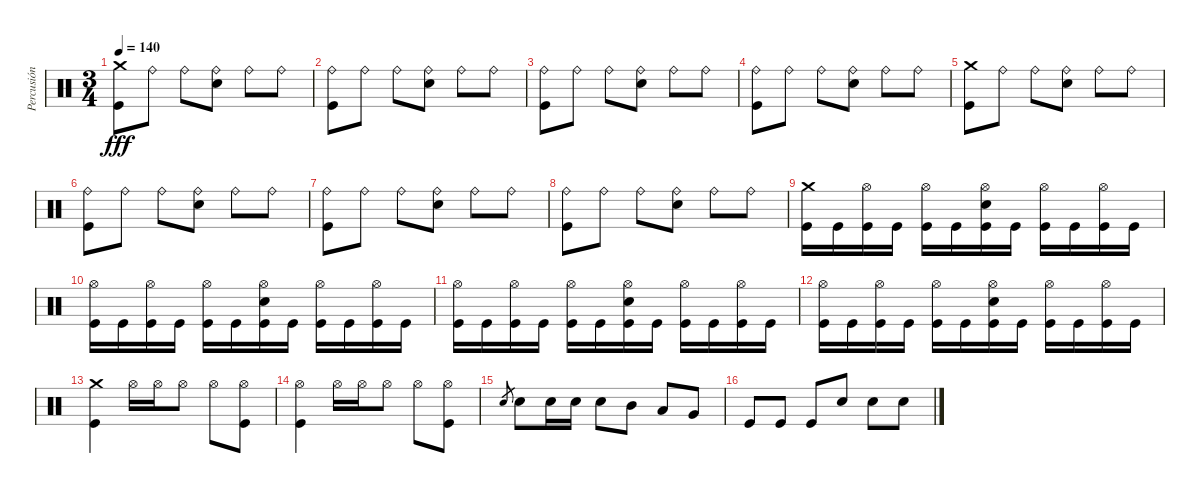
\track ("Percusión" "Percusión") {instrument percussion}
\staff {score}
\articulation defaults
\ts (3 4)
\tempo 140
\clef neutral
\ks c
("Crash medium (hit)" "Kick (hit)").8{dy fff} "Ride (bell)".8 "Ride (bell)".8 ("Ride (bell)" "Snare (hit) 2").8 "Ride (bell)".8 "Ride (bell)".8 |
("Ride (bell)" "Kick (hit)").8 "Ride (bell)".8 "Ride (bell)".8 ("Ride (bell)" "Snare (hit) 2").8 "Ride (bell)".8 "Ride (bell)".8 |
("Ride (bell)" "Kick (hit)").8 "Ride (bell)".8 "Ride (bell)".8 ("Ride (bell)" "Snare (hit) 2").8 "Ride (bell)".8 "Ride (bell)".8 |
("Ride (bell)" "Kick (hit)").8 "Ride (bell)".8 "Ride (bell)".8 ("Ride (bell)" "Snare (hit) 2").8 "Ride (bell)".8 "Ride (bell)".8 |
("Crash medium (hit)" "Kick (hit)").8 "Ride (bell)".8 "Ride (bell)".8 ("Ride (bell)" "Snare (hit) 2").8 "Ride (bell)".8 "Ride (bell)".8 |
("Ride (bell)" "Kick (hit)").8 "Ride (bell)".8 "Ride (bell)".8 ("Ride (bell)" "Snare (hit) 2").8 "Ride (bell)".8 "Ride (bell)".8 |
("Ride (bell)" "Kick (hit)").8 "Ride (bell)".8 "Ride (bell)".8 ("Ride (bell)" "Snare (hit) 2").8 "Ride (bell)".8 "Ride (bell)".8 |
("Ride (bell)" "Kick (hit)").8 "Ride (bell)".8 "Ride (bell)".8 ("Ride (bell)" "Snare (hit) 2").8 "Ride (bell)".8 "Ride (bell)".8 |
("Crash medium (hit)" "Kick (hit)").16 "Kick (hit)".16 ("Hi-Hat (open)" "Kick (hit)").16 "Kick (hit)".16 ("Hi-Hat (open)" "Kick (hit)").16 "Kick (hit)".16 ("Hi-Hat (open)" "Snare (hit) 2" "Kick (hit)").16 "Kick (hit)".16 ("Hi-Hat (open)" "Kick (hit)").16 "Kick (hit)".16 ("Hi-Hat (open)" "Kick (hit)").16 "Kick (hit)".16 |
("Hi-Hat (open)" "Kick (hit)").16 "Kick (hit)".16 ("Hi-Hat (open)" "Kick (hit)").16 "Kick (hit)".16 ("Hi-Hat (open)" "Kick (hit)").16 "Kick (hit)".16 ("Hi-Hat (open)" "Snare (hit) 2" "Kick (hit)").16 "Kick (hit)".16 ("Hi-Hat (open)" "Kick (hit)").16 "Kick (hit)".16 ("Hi-Hat (open)" "Kick (hit)").16 "Kick (hit)".16 |
("Hi-Hat (open)" "Kick (hit)").16 "Kick (hit)".16 ("Hi-Hat (open)" "Kick (hit)").16 "Kick (hit)".16 ("Hi-Hat (open)" "Kick (hit)").16 "Kick (hit)".16 ("Hi-Hat (open)" "Snare (hit) 2" "Kick (hit)").16 "Kick (hit)".16 ("Hi-Hat (open)" "Kick (hit)").16 "Kick (hit)".16 ("Hi-Hat (open)" "Kick (hit)").16 "Kick (hit)".16 |
("Hi-Hat (open)" "Kick (hit)").16 "Kick (hit)".16 ("Hi-Hat (open)" "Kick (hit)").16 "Kick (hit)".16 ("Hi-Hat (open)" "Kick (hit)").16 "Kick (hit)".16 ("Hi-Hat (open)" "Snare (hit) 2" "Kick (hit)").16 "Kick (hit)".16 ("Hi-Hat (open)" "Kick (hit)").16 "Kick (hit)".16 ("Hi-Hat (open)" "Kick (hit)").16 "Kick (hit)".16 |
("Crash medium (hit)" "Kick (hit)").4 "Hi-Hat (open)".16 "Hi-Hat (open)".16 "Hi-Hat (open)".8 "Hi-Hat (open)".8 ("Hi-Hat (open)" "Kick (hit)").8 |
("Hi-Hat (open)" "Kick (hit)").4 "Hi-Hat (open)".16 "Hi-Hat (open)".16 "Hi-Hat (open)".8 "Hi-Hat (open)".8 ("Hi-Hat (open)" "Kick (hit)").8 |
"Snare (hit) 2".8{gr} "Snare (hit) 2".8 "Snare (hit) 2".16 "Snare (hit) 2".16 "Snare (hit) 2".8 "Mid Tom (hit)".8 "Low Tom (hit)".8 "Very Low Tom (hit)".8 |
"Kick (hit)".8 "Kick (hit)".8 "Kick (hit)".8 "Snare (hit) 2".8 "Snare (hit) 2".8 "Snare (hit) 2".8
